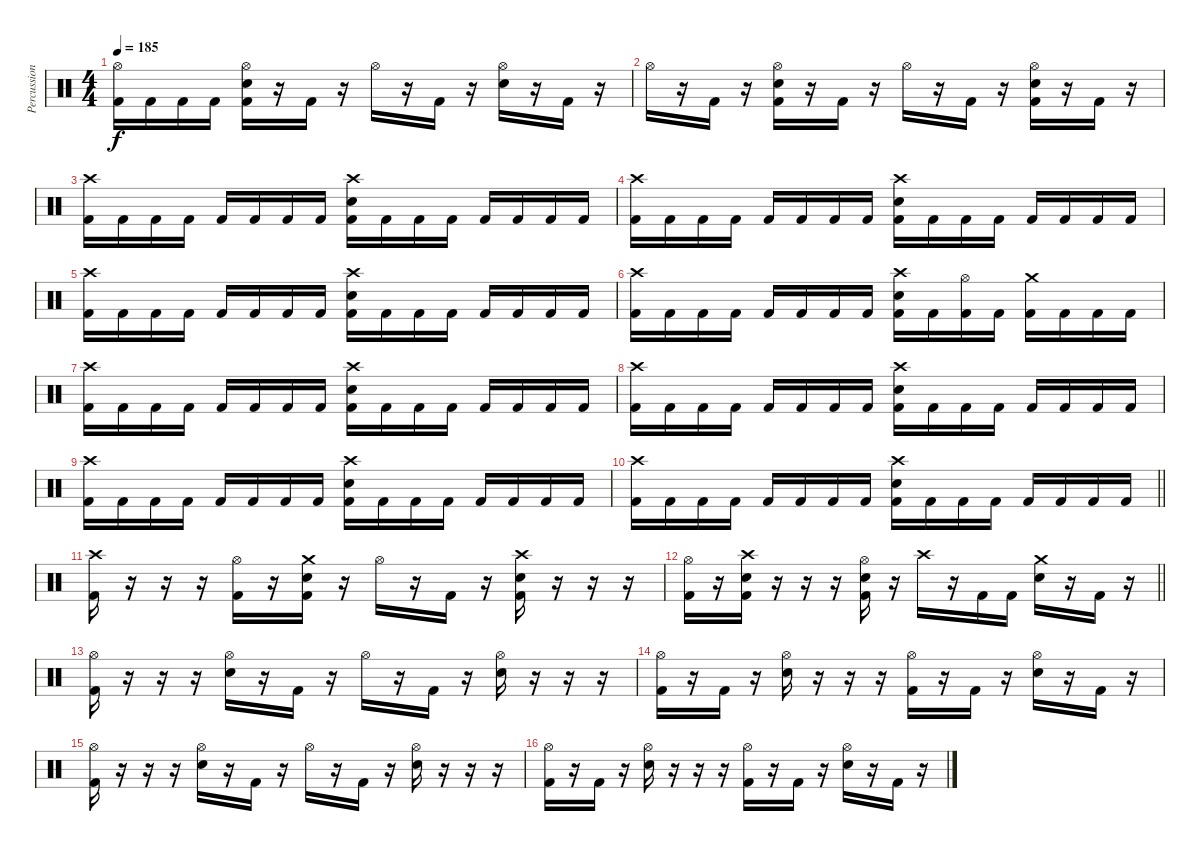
\track ("Percussion" "Percussion") {instrument percussion}
\staff {score}
\articulation defaults
\ts (4 4)
\tempo 185
\clef neutral
\ks c
("Hi-Hat (open)" "Kick (hit) 2").16{dy f} "Kick (hit) 2".16 "Kick (hit) 2".16 "Kick (hit) 2".16 ("Hi-Hat (open)" "Electric Snare (hit)" "Kick (hit) 2").16 r.16 "Kick (hit) 2".16 r.16 "Hi-Hat (open)".16 r.16 "Kick (hit) 2".16 r.16 ("Hi-Hat (open)" "Electric Snare (hit)").16 r.16 "Kick (hit) 2".16 r.16 |
"Hi-Hat (open)".16 r.16 "Kick (hit) 2".16 r.16 ("Hi-Hat (open)" "Electric Snare (hit)" "Kick (hit) 2").16 r.16 "Kick (hit) 2".16 r.16 "Hi-Hat (open)".16 r.16 "Kick (hit) 2".16 r.16 ("Hi-Hat (open)" "Electric Snare (hit)" "Kick (hit) 2").16 r.16 "Kick (hit) 2".16 r.16 |
("Crash high (hit)" "Kick (hit) 2").16 "Kick (hit) 2".16 "Kick (hit) 2".16 "Kick (hit) 2".16 "Kick (hit) 2".16 "Kick (hit) 2".16 "Kick (hit) 2".16 "Kick (hit) 2".16 ("Crash high (hit)" "Electric Snare (hit)" "Kick (hit) 2").16 "Kick (hit) 2".16 "Kick (hit) 2".16 "Kick (hit) 2".16 "Kick (hit) 2".16 "Kick (hit) 2".16 "Kick (hit) 2".16 "Kick (hit) 2".16 |
("Crash high (hit)" "Kick (hit) 2").16 "Kick (hit) 2".16 "Kick (hit) 2".16 "Kick (hit) 2".16 "Kick (hit) 2".16 "Kick (hit) 2".16 "Kick (hit) 2".16 "Kick (hit) 2".16 ("Crash high (hit)" "Electric Snare (hit)" "Kick (hit) 2").16 "Kick (hit) 2".16 "Kick (hit) 2".16 "Kick (hit) 2".16 "Kick (hit) 2".16 "Kick (hit) 2".16 "Kick (hit) 2".16 "Kick (hit) 2".16 |
("Crash high (hit)" "Kick (hit) 2").16 "Kick (hit) 2".16 "Kick (hit) 2".16 "Kick (hit) 2".16 "Kick (hit) 2".16 "Kick (hit) 2".16 "Kick (hit) 2".16 "Kick (hit) 2".16 ("Crash high (hit)" "Electric Snare (hit)" "Kick (hit) 2").16 "Kick (hit) 2".16 "Kick (hit) 2".16 "Kick (hit) 2".16 "Kick (hit) 2".16 "Kick (hit) 2".16 "Kick (hit) 2".16 "Kick (hit) 2".16 |
("Crash high (hit)" "Kick (hit) 2").16 "Kick (hit) 2".16 "Kick (hit) 2".16 "Kick (hit) 2".16 "Kick (hit) 2".16 "Kick (hit) 2".16 "Kick (hit) 2".16 "Kick (hit) 2".16 ("Crash high (hit)" "Electric Snare (hit)" "Kick (hit) 2").16 "Kick (hit) 2".16 ("Hi-Hat (open)" "Kick (hit) 2").16 "Kick (hit) 2".16 ("Crash medium (hit)" "Kick (hit) 2").16 "Kick (hit) 2".16 "Kick (hit) 2".16 "Kick (hit) 2".16 |
("Crash high (hit)" "Kick (hit) 2").16 "Kick (hit) 2".16 "Kick (hit) 2".16 "Kick (hit) 2".16 "Kick (hit) 2".16 "Kick (hit) 2".16 "Kick (hit) 2".16 "Kick (hit) 2".16 ("Crash high (hit)" "Electric Snare (hit)" "Kick (hit) 2").16 "Kick (hit) 2".16 "Kick (hit) 2".16 "Kick (hit) 2".16 "Kick (hit) 2".16 "Kick (hit) 2".16 "Kick (hit) 2".16 "Kick (hit) 2".16 |
("Crash high (hit)" "Kick (hit) 2").16 "Kick (hit) 2".16 "Kick (hit) 2".16 "Kick (hit) 2".16 "Kick (hit) 2".16 "Kick (hit) 2".16 "Kick (hit) 2".16 "Kick (hit) 2".16 ("Crash high (hit)" "Electric Snare (hit)" "Kick (hit) 2").16 "Kick (hit) 2".16 "Kick (hit) 2".16 "Kick (hit) 2".16 "Kick (hit) 2".16 "Kick (hit) 2".16 "Kick (hit) 2".16 "Kick (hit) 2".16 |
("Crash high (hit)" "Kick (hit) 2").16 "Kick (hit) 2".16 "Kick (hit) 2".16 "Kick (hit) 2".16 "Kick (hit) 2".16 "Kick (hit) 2".16 "Kick (hit) 2".16 "Kick (hit) 2".16 ("Crash high (hit)" "Electric Snare (hit)" "Kick (hit) 2").16 "Kick (hit) 2".16 "Kick (hit) 2".16 "Kick (hit) 2".16 "Kick (hit) 2".16 "Kick (hit) 2".16 "Kick (hit) 2".16 "Kick (hit) 2".16 |
\barLineRight lightlight
("Crash high (hit)" "Kick (hit) 2").16 "Kick (hit) 2".16 "Kick (hit) 2".16 "Kick (hit) 2".16 "Kick (hit) 2".16 "Kick (hit) 2".16 "Kick (hit) 2".16 "Kick (hit) 2".16 ("Crash high (hit)" "Electric Snare (hit)" "Kick (hit) 2").16 "Kick (hit) 2".16 "Kick (hit) 2".16 "Kick (hit) 2".16 "Kick (hit) 2".16 "Kick (hit) 2".16 "Kick (hit) 2".16 "Kick (hit) 2".16 |
("Crash high (hit)" "Kick (hit) 2").16 r.16 r.16 r.16 ("Hi-Hat (open)" "Kick (hit) 2").16 r.16 ("Crash medium (hit)" "Electric Snare (hit)" "Kick (hit) 2").16 r.16 "Hi-Hat (open)".16 r.16 "Kick (hit) 2".16 r.16 ("Crash high (hit)" "Electric Snare (hit)" "Kick (hit) 2").16 r.16 r.16 r.16 |
\barLineRight lightlight
("Hi-Hat (open)" "Kick (hit) 2").16 r.16 ("Crash high (hit)" "Electric Snare (hit)" "Kick (hit) 2").16 r.16 r.16 r.16 ("Hi-Hat (open)" "Electric Snare (hit)" "Kick (hit) 2").16 r.16 "Crash high (hit)".16 r.16 "Kick (hit) 2".16 "Kick (hit) 2".16 ("Crash medium (hit)" "Electric Snare (hit)").16 r.16 "Kick (hit) 2".16 r.16 |
("Hi-Hat (open)" "Kick (hit) 2").16 r.16 r.16 r.16 ("Hi-Hat (open)" "Electric Snare (hit)").16 r.16 "Kick (hit) 2".16 r.16 "Hi-Hat (open)".16 r.16 "Kick (hit) 2".16 r.16 ("Hi-Hat (open)" "Electric Snare (hit)").16 r.16 r.16 r.16 |
("Hi-Hat (open)" "Kick (hit) 2").16 r.16 "Kick (hit) 2".16 r.16 ("Hi-Hat (open)" "Electric Snare (hit)").16 r.16 r.16 r.16 ("Hi-Hat (open)" "Kick (hit) 2").16 r.16 "Kick (hit) 2".16 r.16 ("Hi-Hat (open)" "Electric Snare (hit)").16 r.16 "Kick (hit) 2".16 r.16 |
("Hi-Hat (open)" "Kick (hit) 2").16 r.16 r.16 r.16 ("Hi-Hat (open)" "Electric Snare (hit)").16 r.16 "Kick (hit) 2".16 r.16 "Hi-Hat (open)".16 r.16 "Kick (hit) 2".16 r.16 ("Hi-Hat (open)" "Electric Snare (hit)").16 r.16 r.16 r.16 |
("Hi-Hat (open)" "Kick (hit) 2").16 r.16 "Kick (hit) 2".16 r.16 ("Hi-Hat (open)" "Electric Snare (hit)").16 r.16 r.16 r.16 ("Hi-Hat (open)" "Kick (hit) 2").16 r.16 "Kick (hit) 2".16 r.16 ("Hi-Hat (open)" "Electric Snare (hit)").16 r.16 "Kick (hit) 2".16 r.16
